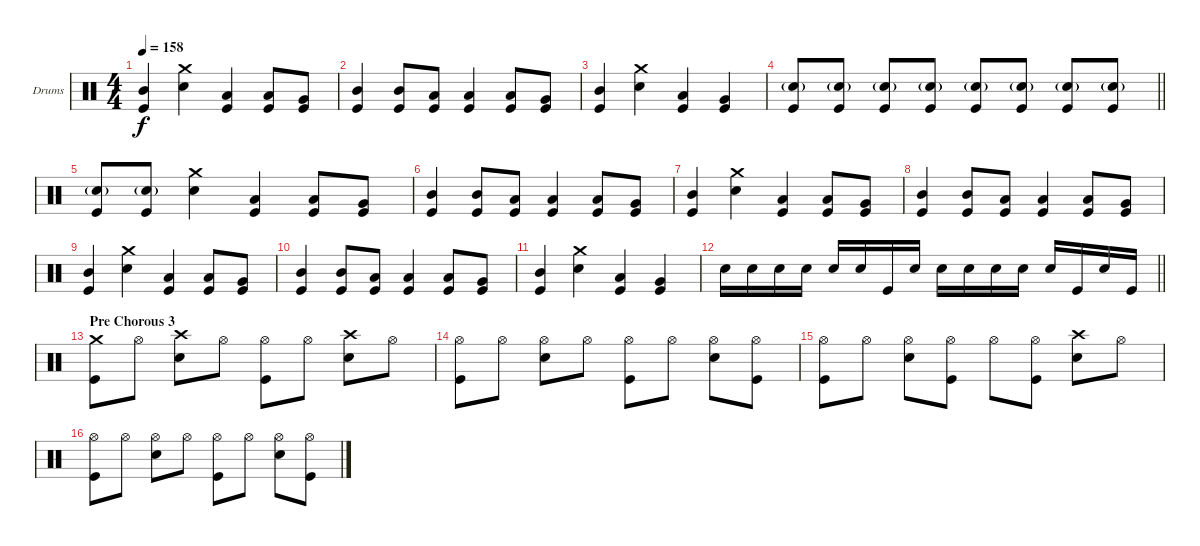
\bracketExtendMode groupsimilarinstruments
\firstSystemTrackNameOrientation horizontal
\otherSystemsTrackNameOrientation horizontal
\track ("Drumkit" "Drums") {instrument percussion}
\staff {score}
\articulation defaults
\ts (4 4)
\tempo 158
\clef neutral
\ks c
("Kick (hit)" "Mid Tom (hit)").4{dy f} ("Crash medium (hit)" "Snare (hit) 2").4 ("Kick (hit)" "Low Tom (hit)").4 ("Kick (hit)" "Low Tom (hit)").8 ("Kick (hit)" "Very Low Tom (hit)").8 |
("Kick (hit)" "Mid Tom (hit)").4 ("Kick (hit)" "Mid Tom (hit)").8 ("Kick (hit)" "Low Tom (hit)").8 ("Kick (hit)" "Low Tom (hit)").4 ("Kick (hit)" "Low Tom (hit)").8 ("Kick (hit)" "Very Low Tom (hit)").8 |
("Kick (hit)" "Mid Tom (hit)").4 ("Crash medium (hit)" "Snare (hit) 2").4 ("Kick (hit)" "Low Tom (hit)").4 ("Kick (hit)" "Very Low Tom (hit)").4 |
\barLineRight lightlight
("Snare (hit) 2"{g} "Kick (hit)").8 ("Snare (hit) 2"{g} "Kick (hit)").8 ("Snare (hit) 2"{g} "Kick (hit)").8 ("Snare (hit) 2"{g} "Kick (hit)").8 ("Snare (hit) 2"{g} "Kick (hit)").8 ("Snare (hit) 2"{g} "Kick (hit)").8 ("Snare (hit) 2"{g} "Kick (hit)").8 ("Snare (hit) 2"{g} "Kick (hit)").8 |
\section ("" "")
("Snare (hit) 2"{g} "Kick (hit)").8 ("Snare (hit) 2"{g} "Kick (hit)").8 ("Crash medium (hit)" "Snare (hit) 2").4 ("Kick (hit)" "Low Tom (hit)").4 ("Kick (hit)" "Low Tom (hit)").8 ("Kick (hit)" "Very Low Tom (hit)").8 |
("Kick (hit)" "Mid Tom (hit)").4 ("Kick (hit)" "Mid Tom (hit)").8 ("Kick (hit)" "Low Tom (hit)").8 ("Kick (hit)" "Low Tom (hit)").4 ("Kick (hit)" "Low Tom (hit)").8 ("Kick (hit)" "Very Low Tom (hit)").8 |
("Kick (hit)" "Mid Tom (hit)").4 ("Crash medium (hit)" "Snare (hit) 2").4 ("Kick (hit)" "Low Tom (hit)").4 ("Kick (hit)" "Low Tom (hit)").8 ("Kick (hit)" "Very Low Tom (hit)").8 |
("Kick (hit)" "Mid Tom (hit)").4 ("Kick (hit)" "Mid Tom (hit)").8 ("Kick (hit)" "Low Tom (hit)").8 ("Kick (hit)" "Low Tom (hit)").4 ("Kick (hit)" "Low Tom (hit)").8 ("Kick (hit)" "Very Low Tom (hit)").8 |
("Kick (hit)" "Mid Tom (hit)").4 ("Crash medium (hit)" "Snare (hit) 2").4 ("Kick (hit)" "Low Tom (hit)").4 ("Kick (hit)" "Low Tom (hit)").8 ("Kick (hit)" "Very Low Tom (hit)").8 |
("Kick (hit)" "Mid Tom (hit)").4 ("Kick (hit)" "Mid Tom (hit)").8 ("Kick (hit)" "Low Tom (hit)").8 ("Kick (hit)" "Low Tom (hit)").4 ("Kick (hit)" "Low Tom (hit)").8 ("Kick (hit)" "Very Low Tom (hit)").8 |
("Kick (hit)" "Mid Tom (hit)").4 ("Crash medium (hit)" "Snare (hit) 2").4 ("Kick (hit)" "Low Tom (hit)").4 ("Kick (hit)" "Very Low Tom (hit)").4 |
\barLineRight lightlight "Snare (hit) 2".16 "Snare (hit) 2".16 "Snare (hit) 2".16 "Snare (hit) 2".16 "Snare (hit) 2".16 "Snare (hit) 2".16 "Kick (hit)".16 "Snare (hit) 2".16 "Snare (hit) 2".16 "Snare (hit) 2".16 "Snare (hit) 2".16 "Snare (hit) 2".16 "Snare (hit) 2".16 "Kick (hit)".16 "Snare (hit) 2".16 "Kick (hit)".16
|
\section ("" "Pre Chorous 3")
("Crash medium (hit)" "Kick (hit)").8 "Hi-Hat (open)".8 ("Crash high (hit)" "Snare (hit) 2").8 "Hi-Hat (open)".8 ("Hi-Hat (open)" "Kick (hit)").8 "Hi-Hat (open)".8 ("Crash high (hit)" "Snare (hit) 2").8 "Hi-Hat (open)".8 |
("Hi-Hat (open)" "Kick (hit)").8 "Hi-Hat (open)".8 ("Hi-Hat (open)" "Snare (hit) 2").8 "Hi-Hat (open)".8 ("Hi-Hat (open)" "Kick (hit)").8 "Hi-Hat (open)".8 ("Hi-Hat (open)" "Snare (hit) 2").8 ("Hi-Hat (open)" "Kick (hit)").8 |
("Hi-Hat (open)" "Kick (hit)").8 "Hi-Hat (open)".8 ("Hi-Hat (open)" "Snare (hit) 2").8 ("Hi-Hat (open)" "Kick (hit)").8 "Hi-Hat (open)".8 ("Hi-Hat (open)" "Kick (hit)").8 ("Crash high (hit)" "Snare (hit) 2").8 "Hi-Hat (open)".8 |
("Hi-Hat (open)" "Kick (hit)").8 "Hi-Hat (open)".8 ("Hi-Hat (open)" "Snare (hit) 2").8 "Hi-Hat (open)".8 ("Hi-Hat (open)" "Kick (hit)").8 "Hi-Hat (open)".8 ("Hi-Hat (open)" "Snare (hit) 2").8 ("Hi-Hat (open)" "Kick (hit)").8
